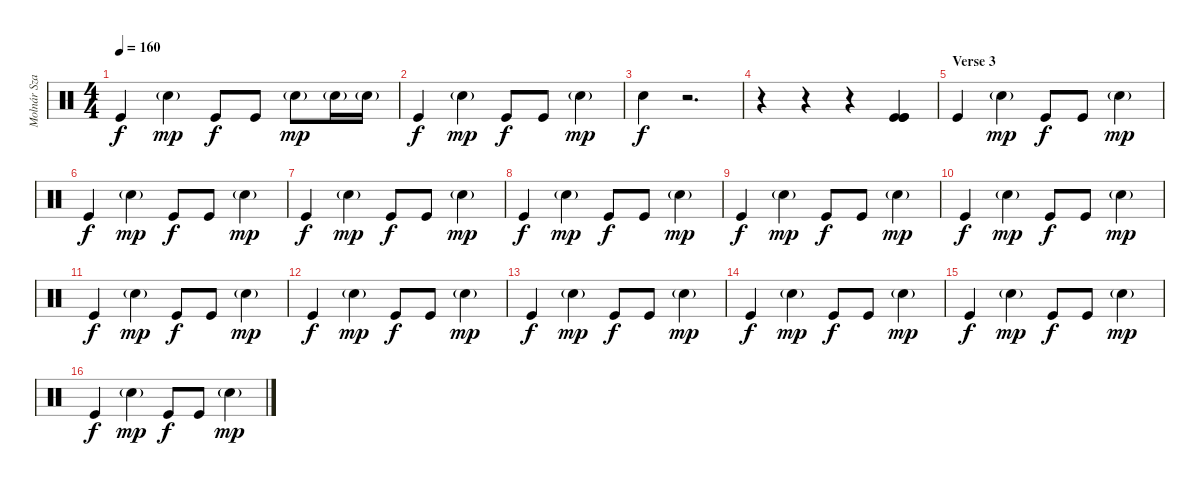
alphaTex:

\track ("Molnár Szabolcs" "Molnár Sza") {instrument percussion}
\staff {score}
\articulation defaults
\ts (4 4)
\tempo 160
\clef neutral
\ks c "Kick (hit)".4{dy f} "Snare (hit) 2"{g}.4{dy mp} "Kick (hit)".8{dy f} "Kick (hit)".8 "Snare (hit) 2"{g}.8{dy mp} "Snare (hit) 2"{g}.16 "Snare (hit) 2"{g}.16
|
"Kick (hit)".4{dy f} "Snare (hit) 2"{g}.4{dy mp} "Kick (hit)".8{dy f} "Kick (hit)".8 "Snare (hit) 2"{g}.4{dy mp} |
"Snare (hit) 2".4{dy f} r.2{d} |
r.4 r.4 r.4 ("Kick (hit)" "Kick (hit)" "Kick (hit)").4 |
\section ("" "Verse 3")
"Kick (hit)".4 "Snare (hit) 2"{g}.4{dy mp} "Kick (hit)".8{dy f} "Kick (hit)".8 "Snare (hit) 2"{g}.4{dy mp} |
"Kick (hit)".4{dy f} "Snare (hit) 2"{g}.4{dy mp} "Kick (hit)".8{dy f} "Kick (hit)".8 "Snare (hit) 2"{g}.4{dy mp} |
"Kick (hit)".4{dy f} "Snare (hit) 2"{g}.4{dy mp} "Kick (hit)".8{dy f} "Kick (hit)".8 "Snare (hit) 2"{g}.4{dy mp} |
"Kick (hit)".4{dy f} "Snare (hit) 2"{g}.4{dy mp} "Kick (hit)".8{dy f} "Kick (hit)".8 "Snare (hit) 2"{g}.4{dy mp} |
"Kick (hit)".4{dy f} "Snare (hit) 2"{g}.4{dy mp} "Kick (hit)".8{dy f} "Kick (hit)".8 "Snare (hit) 2"{g}.4{dy mp} |
"Kick (hit)".4{dy f} "Snare (hit) 2"{g}.4{dy mp} "Kick (hit)".8{dy f} "Kick (hit)".8 "Snare (hit) 2"{g}.4{dy mp} |
"Kick (hit)".4{dy f} "Snare (hit) 2"{g}.4{dy mp} "Kick (hit)".8{dy f} "Kick (hit)".8 "Snare (hit) 2"{g}.4{dy mp} |
"Kick (hit)".4{dy f} "Snare (hit) 2"{g}.4{dy mp} "Kick (hit)".8{dy f} "Kick (hit)".8 "Snare (hit) 2"{g}.4{dy mp} |
"Kick (hit)".4{dy f} "Snare (hit) 2"{g}.4{dy mp} "Kick (hit)".8{dy f} "Kick (hit)".8 "Snare (hit) 2"{g}.4{dy mp} |
"Kick (hit)".4{dy f} "Snare (hit) 2"{g}.4{dy mp} "Kick (hit)".8{dy f} "Kick (hit)".8 "Snare (hit) 2"{g}.4{dy mp} |
"Kick (hit)".4{dy f} "Snare (hit) 2"{g}.4{dy mp} "Kick (hit)".8{dy f} "Kick (hit)".8 "Snare (hit) 2"{g}.4{dy mp} |
"Kick (hit)".4{dy f} "Snare (hit) 2"{g}.4{dy mp} "Kick (hit)".8{dy f} "Kick (hit)".8 "Snare (hit) 2"{g}.4{dy mp}
